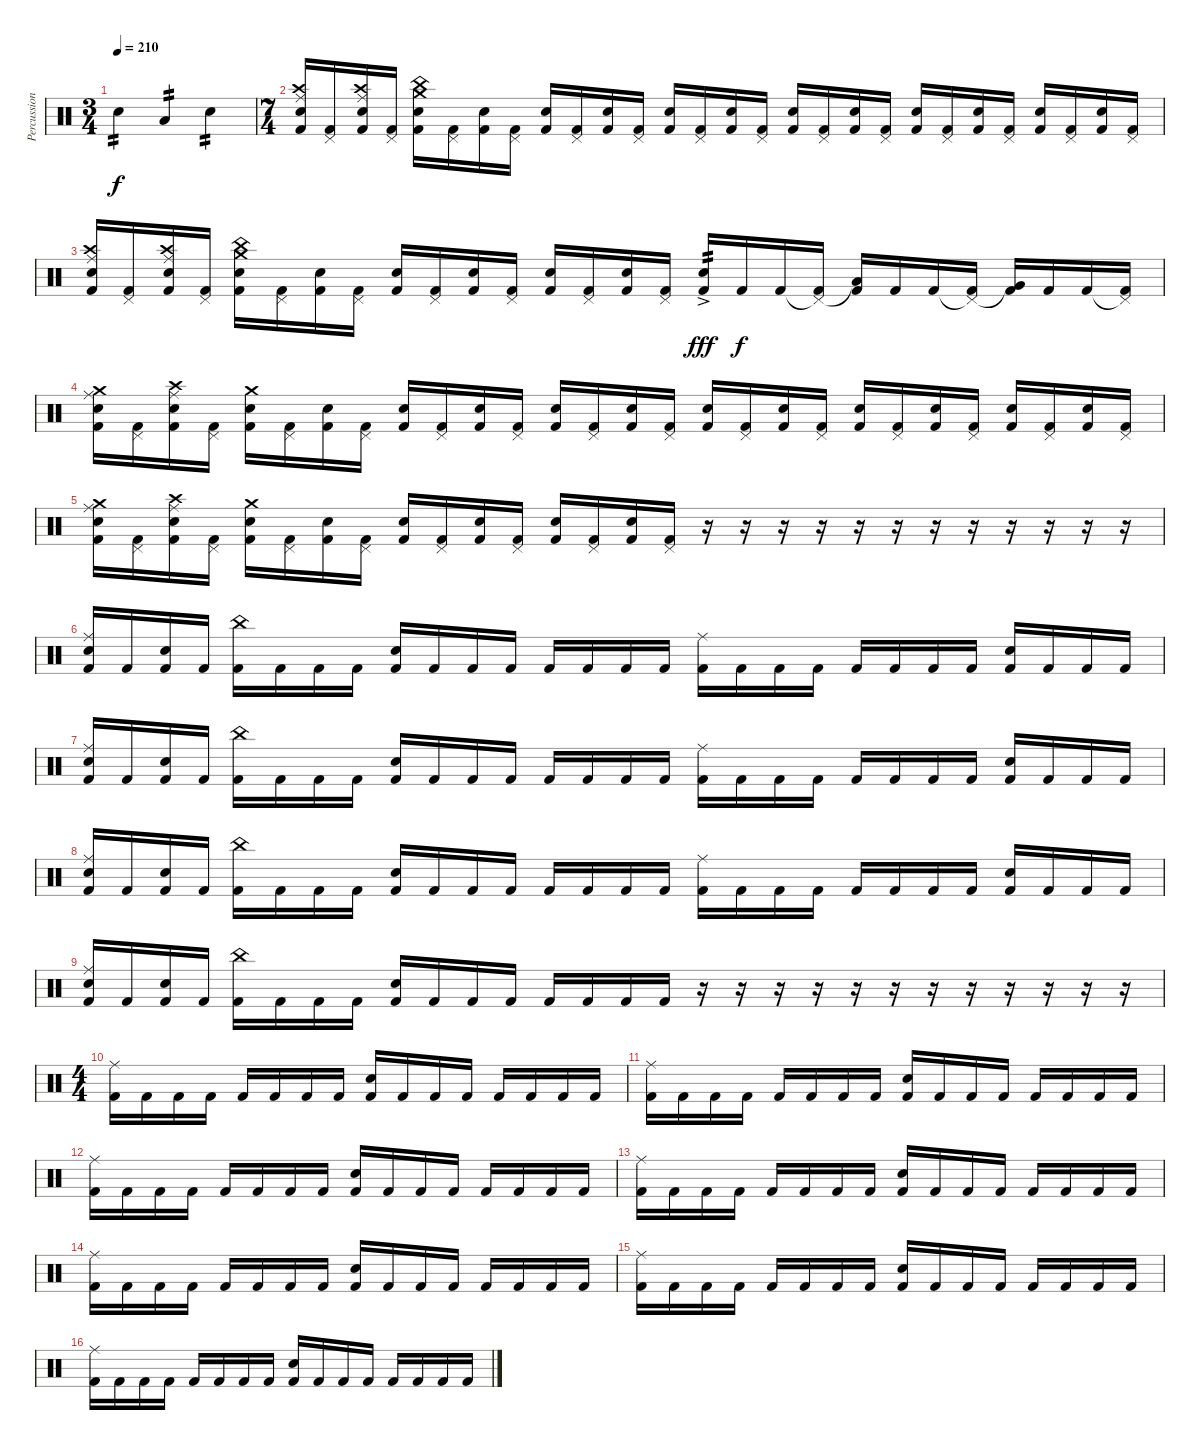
\track ("Percussions" "Percussion") {instrument percussion}
\staff {score}
\articulation defaults
\ts (3 4)
\tempo 210
\clef neutral
\ks c "Snare (hit) 2".4{tp 2 dy f volume 10} "Low Tom (hit)".4{tp 2} "Snare (hit) 2".4{tp 2}
|
\ts (7 4)
("Crash high (hit)" "Ride (middle)" "Snare (hit) 2" "Kick (hit) 2").16{volume 12} ("Pedal Hi-Hat (hit)" "Kick (hit) 2").16 ("Crash high (hit)" "Ride (middle)" "Snare (hit) 2" "Kick (hit) 2").16 ("Pedal Hi-Hat (hit)" "Kick (hit) 2").16 ("China (hit)" "Crash medium (hit)" "Snare (hit) 2" "Kick (hit) 2").16 ("Pedal Hi-Hat (hit)" "Kick (hit) 2").16 ("Snare (hit) 2" "Kick (hit) 2").16 ("Pedal Hi-Hat (hit)" "Kick (hit) 2").16 ("Snare (hit) 2" "Kick (hit) 2").16 ("Pedal Hi-Hat (hit)" "Kick (hit) 2").16 ("Snare (hit) 2" "Kick (hit) 2").16 ("Pedal Hi-Hat (hit)" "Kick (hit) 2").16 ("Snare (hit) 2" "Kick (hit) 2").16 ("Pedal Hi-Hat (hit)" "Kick (hit) 2").16 ("Snare (hit) 2" "Kick (hit) 2").16 ("Pedal Hi-Hat (hit)" "Kick (hit) 2").16 ("Snare (hit) 2" "Kick (hit) 2").16 ("Pedal Hi-Hat (hit)" "Kick (hit) 2").16 ("Snare (hit) 2" "Kick (hit) 2").16 ("Pedal Hi-Hat (hit)" "Kick (hit) 2").16 ("Snare (hit) 2" "Kick (hit) 2").16 ("Pedal Hi-Hat (hit)" "Kick (hit) 2").16 ("Snare (hit) 2" "Kick (hit) 2").16 ("Pedal Hi-Hat (hit)" "Kick (hit) 2").16 ("Snare (hit) 2" "Kick (hit) 2").16 ("Pedal Hi-Hat (hit)" "Kick (hit) 2").16 ("Snare (hit) 2" "Kick (hit) 2").16 ("Pedal Hi-Hat (hit)" "Kick (hit) 2").16 |
("Crash high (hit)" "Ride (middle)" "Snare (hit) 2" "Kick (hit) 2").16 ("Pedal Hi-Hat (hit)" "Kick (hit) 2").16 ("Crash high (hit)" "Ride (middle)" "Snare (hit) 2" "Kick (hit) 2").16 ("Pedal Hi-Hat (hit)" "Kick (hit) 2").16 ("China (hit)" "Crash medium (hit)" "Snare (hit) 2" "Kick (hit) 2").16 ("Pedal Hi-Hat (hit)" "Kick (hit) 2").16 ("Snare (hit) 2" "Kick (hit) 2").16 ("Pedal Hi-Hat (hit)" "Kick (hit) 2").16 ("Snare (hit) 2" "Kick (hit) 2").16 ("Pedal Hi-Hat (hit)" "Kick (hit) 2").16 ("Snare (hit) 2" "Kick (hit) 2").16 ("Pedal Hi-Hat (hit)" "Kick (hit) 2").16 ("Snare (hit) 2" "Kick (hit) 2").16 ("Pedal Hi-Hat (hit)" "Kick (hit) 2").16 ("Snare (hit) 2" "Kick (hit) 2").16 ("Pedal Hi-Hat (hit)" "Kick (hit) 2").16 ("Snare (hit) 2"{ac} "Kick (hit) 2").16{tp 2 dy fff} "Kick (hit) 2".16{dy f} "Kick (hit) 2".16 ("Pedal Hi-Hat (hit)"{t} "Kick (hit) 2").16 ("Low Tom (hit)"{t} "Kick (hit) 2").16 "Kick (hit) 2".16 "Kick (hit) 2".16 ("Pedal Hi-Hat (hit)"{t} "Kick (hit) 2").16 ("Very Low Tom (hit)"{t} "Kick (hit) 2").16 "Kick (hit) 2".16 "Kick (hit) 2".16 ("Pedal Hi-Hat (hit)"{t} "Kick (hit) 2").16 |
("Crash medium (hit)" "Ride (middle)" "Snare (hit) 2" "Kick (hit) 2").16 ("Pedal Hi-Hat (hit)" "Kick (hit) 2").16 ("Crash high (hit)" "Ride (middle)" "Snare (hit) 2" "Kick (hit) 2").16 ("Pedal Hi-Hat (hit)" "Kick (hit) 2").16 ("Crash medium (hit)" "Snare (hit) 2" "Kick (hit) 2").16 ("Pedal Hi-Hat (hit)" "Kick (hit) 2").16 ("Snare (hit) 2" "Kick (hit) 2").16 ("Pedal Hi-Hat (hit)" "Kick (hit) 2").16 ("Snare (hit) 2" "Kick (hit) 2").16 ("Pedal Hi-Hat (hit)" "Kick (hit) 2").16 ("Snare (hit) 2" "Kick (hit) 2").16 ("Pedal Hi-Hat (hit)" "Kick (hit) 2").16 ("Snare (hit) 2" "Kick (hit) 2").16 ("Pedal Hi-Hat (hit)" "Kick (hit) 2").16 ("Snare (hit) 2" "Kick (hit) 2").16 ("Pedal Hi-Hat (hit)" "Kick (hit) 2").16 ("Snare (hit) 2" "Kick (hit) 2").16 ("Pedal Hi-Hat (hit)" "Kick (hit) 2").16 ("Snare (hit) 2" "Kick (hit) 2").16 ("Pedal Hi-Hat (hit)" "Kick (hit) 2").16 ("Snare (hit) 2" "Kick (hit) 2").16 ("Pedal Hi-Hat (hit)" "Kick (hit) 2").16 ("Snare (hit) 2" "Kick (hit) 2").16 ("Pedal Hi-Hat (hit)" "Kick (hit) 2").16 ("Snare (hit) 2" "Kick (hit) 2").16 ("Pedal Hi-Hat (hit)" "Kick (hit) 2").16 ("Snare (hit) 2" "Kick (hit) 2").16 ("Pedal Hi-Hat (hit)" "Kick (hit) 2").16 |
("Crash medium (hit)" "Ride (middle)" "Snare (hit) 2" "Kick (hit) 2").16 ("Pedal Hi-Hat (hit)" "Kick (hit) 2").16 ("Crash high (hit)" "Ride (middle)" "Snare (hit) 2" "Kick (hit) 2").16 ("Pedal Hi-Hat (hit)" "Kick (hit) 2").16 ("Crash medium (hit)" "Snare (hit) 2" "Kick (hit) 2").16 ("Pedal Hi-Hat (hit)" "Kick (hit) 2").16 ("Snare (hit) 2" "Kick (hit) 2").16 ("Pedal Hi-Hat (hit)" "Kick (hit) 2").16 ("Snare (hit) 2" "Kick (hit) 2").16 ("Pedal Hi-Hat (hit)" "Kick (hit) 2").16 ("Snare (hit) 2" "Kick (hit) 2").16 ("Pedal Hi-Hat (hit)" "Kick (hit) 2").16 ("Snare (hit) 2" "Kick (hit) 2").16 ("Pedal Hi-Hat (hit)" "Kick (hit) 2").16 ("Snare (hit) 2" "Kick (hit) 2").16 ("Pedal Hi-Hat (hit)" "Kick (hit) 2").16 r.16 r.16 r.16 r.16 r.16 r.16 r.16 r.16 r.16 r.16 r.16 r.16 |
("Ride (middle)" "Snare (hit) 2" "Kick (hit) 2").16 "Kick (hit) 2".16 ("Snare (hit) 2" "Kick (hit) 2").16 "Kick (hit) 2".16 ("China (hit)" "Kick (hit) 2").16 "Kick (hit) 2".16 "Kick (hit) 2".16 "Kick (hit) 2".16 ("Snare (hit) 2" "Kick (hit) 2").16 "Kick (hit) 2".16 "Kick (hit) 2".16 "Kick (hit) 2".16 "Kick (hit) 2".16 "Kick (hit) 2".16 "Kick (hit) 2".16 "Kick (hit) 2".16 ("Ride (middle)" "Kick (hit) 2").16 "Kick (hit) 2".16 "Kick (hit) 2".16 "Kick (hit) 2".16 "Kick (hit) 2".16 "Kick (hit) 2".16 "Kick (hit) 2".16 "Kick (hit) 2".16 ("Snare (hit) 2" "Kick (hit) 2").16 "Kick (hit) 2".16 "Kick (hit) 2".16 "Kick (hit) 2".16 |
("Ride (middle)" "Snare (hit) 2" "Kick (hit) 2").16 "Kick (hit) 2".16 ("Snare (hit) 2" "Kick (hit) 2").16 "Kick (hit) 2".16 ("China (hit)" "Kick (hit) 2").16 "Kick (hit) 2".16 "Kick (hit) 2".16 "Kick (hit) 2".16 ("Snare (hit) 2" "Kick (hit) 2").16 "Kick (hit) 2".16 "Kick (hit) 2".16 "Kick (hit) 2".16 "Kick (hit) 2".16 "Kick (hit) 2".16 "Kick (hit) 2".16 "Kick (hit) 2".16 ("Ride (middle)" "Kick (hit) 2").16 "Kick (hit) 2".16 "Kick (hit) 2".16 "Kick (hit) 2".16 "Kick (hit) 2".16 "Kick (hit) 2".16 "Kick (hit) 2".16 "Kick (hit) 2".16 ("Snare (hit) 2" "Kick (hit) 2").16 "Kick (hit) 2".16 "Kick (hit) 2".16 "Kick (hit) 2".16 |
("Ride (middle)" "Snare (hit) 2" "Kick (hit) 2").16 "Kick (hit) 2".16 ("Snare (hit) 2" "Kick (hit) 2").16 "Kick (hit) 2".16 ("China (hit)" "Kick (hit) 2").16 "Kick (hit) 2".16 "Kick (hit) 2".16 "Kick (hit) 2".16 ("Snare (hit) 2" "Kick (hit) 2").16 "Kick (hit) 2".16 "Kick (hit) 2".16 "Kick (hit) 2".16 "Kick (hit) 2".16 "Kick (hit) 2".16 "Kick (hit) 2".16 "Kick (hit) 2".16 ("Ride (middle)" "Kick (hit) 2").16 "Kick (hit) 2".16 "Kick (hit) 2".16 "Kick (hit) 2".16 "Kick (hit) 2".16 "Kick (hit) 2".16 "Kick (hit) 2".16 "Kick (hit) 2".16 ("Snare (hit) 2" "Kick (hit) 2").16 "Kick (hit) 2".16 "Kick (hit) 2".16 "Kick (hit) 2".16 |
("Ride (middle)" "Snare (hit) 2" "Kick (hit) 2").16 "Kick (hit) 2".16 ("Snare (hit) 2" "Kick (hit) 2").16 "Kick (hit) 2".16 ("China (hit)" "Kick (hit) 2").16 "Kick (hit) 2".16 "Kick (hit) 2".16 "Kick (hit) 2".16 ("Snare (hit) 2" "Kick (hit) 2").16 "Kick (hit) 2".16 "Kick (hit) 2".16 "Kick (hit) 2".16 "Kick (hit) 2".16 "Kick (hit) 2".16 "Kick (hit) 2".16 "Kick (hit) 2".16 r.16 r.16 r.16 r.16 r.16 r.16 r.16 r.16 r.16 r.16 r.16 r.16 |
\ts (4 4)
("Ride (middle)" "Kick (hit) 2").16 "Kick (hit) 2".16 "Kick (hit) 2".16 "Kick (hit) 2".16 "Kick (hit) 2".16 "Kick (hit) 2".16 "Kick (hit) 2".16 "Kick (hit) 2".16 ("Snare (hit) 2" "Kick (hit) 2").16 "Kick (hit) 2".16 "Kick (hit) 2".16 "Kick (hit) 2".16 "Kick (hit) 2".16 "Kick (hit) 2".16 "Kick (hit) 2".16 "Kick (hit) 2".16 |
("Ride (middle)" "Kick (hit) 2").16 "Kick (hit) 2".16 "Kick (hit) 2".16 "Kick (hit) 2".16 "Kick (hit) 2".16 "Kick (hit) 2".16 "Kick (hit) 2".16 "Kick (hit) 2".16 ("Snare (hit) 2" "Kick (hit) 2").16 "Kick (hit) 2".16 "Kick (hit) 2".16 "Kick (hit) 2".16 "Kick (hit) 2".16 "Kick (hit) 2".16 "Kick (hit) 2".16 "Kick (hit) 2".16 |
("Ride (middle)" "Kick (hit) 2").16 "Kick (hit) 2".16 "Kick (hit) 2".16 "Kick (hit) 2".16 "Kick (hit) 2".16 "Kick (hit) 2".16 "Kick (hit) 2".16 "Kick (hit) 2".16 ("Snare (hit) 2" "Kick (hit) 2").16 "Kick (hit) 2".16 "Kick (hit) 2".16 "Kick (hit) 2".16 "Kick (hit) 2".16 "Kick (hit) 2".16 "Kick (hit) 2".16 "Kick (hit) 2".16 |
("Ride (middle)" "Kick (hit) 2").16 "Kick (hit) 2".16 "Kick (hit) 2".16 "Kick (hit) 2".16 "Kick (hit) 2".16 "Kick (hit) 2".16 "Kick (hit) 2".16 "Kick (hit) 2".16 ("Snare (hit) 2" "Kick (hit) 2").16 "Kick (hit) 2".16 "Kick (hit) 2".16 "Kick (hit) 2".16 "Kick (hit) 2".16 "Kick (hit) 2".16 "Kick (hit) 2".16 "Kick (hit) 2".16 |
("Ride (middle)" "Kick (hit) 2").16 "Kick (hit) 2".16 "Kick (hit) 2".16 "Kick (hit) 2".16 "Kick (hit) 2".16 "Kick (hit) 2".16 "Kick (hit) 2".16 "Kick (hit) 2".16 ("Snare (hit) 2" "Kick (hit) 2").16 "Kick (hit) 2".16 "Kick (hit) 2".16 "Kick (hit) 2".16 "Kick (hit) 2".16 "Kick (hit) 2".16 "Kick (hit) 2".16 "Kick (hit) 2".16 |
("Ride (middle)" "Kick (hit) 2").16 "Kick (hit) 2".16 "Kick (hit) 2".16 "Kick (hit) 2".16 "Kick (hit) 2".16 "Kick (hit) 2".16 "Kick (hit) 2".16 "Kick (hit) 2".16 ("Snare (hit) 2" "Kick (hit) 2").16 "Kick (hit) 2".16 "Kick (hit) 2".16 "Kick (hit) 2".16 "Kick (hit) 2".16 "Kick (hit) 2".16 "Kick (hit) 2".16 "Kick (hit) 2".16 |
("Ride (middle)" "Kick (hit) 2").16 "Kick (hit) 2".16 "Kick (hit) 2".16 "Kick (hit) 2".16 "Kick (hit) 2".16 "Kick (hit) 2".16 "Kick (hit) 2".16 "Kick (hit) 2".16 ("Snare (hit) 2" "Kick (hit) 2").16 "Kick (hit) 2".16 "Kick (hit) 2".16 "Kick (hit) 2".16 "Kick (hit) 2".16 "Kick (hit) 2".16 "Kick (hit) 2".16 "Kick (hit) 2".16
